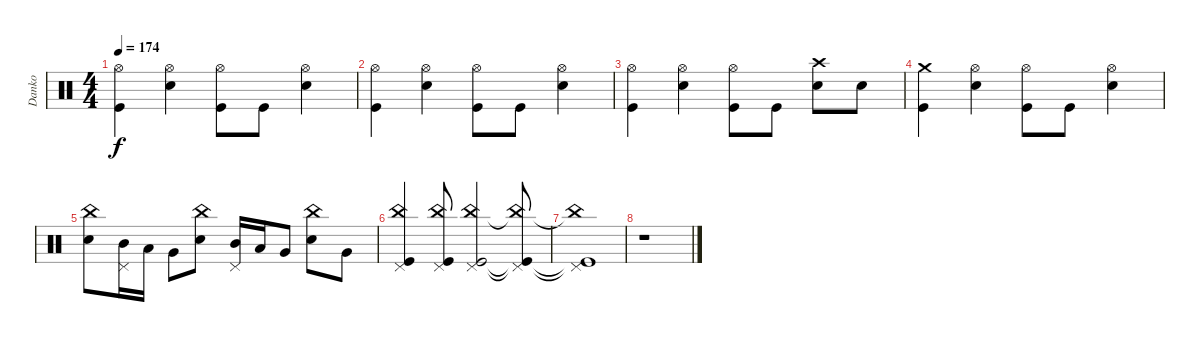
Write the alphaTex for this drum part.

\track ("Danko" "Danko") {instrument percussion}
\staff {score}
\articulation defaults
\ts (4 4)
\tempo 174
\clef neutral
\ks c
("Hi-Hat (open)" "Kick (hit)").4{dy f} ("Hi-Hat (open)" "Snare (hit) 2").4 ("Hi-Hat (open)" "Kick (hit)").8 "Kick (hit)".8 ("Hi-Hat (open)" "Snare (hit) 2").4 |
("Hi-Hat (open)" "Kick (hit)").4 ("Hi-Hat (open)" "Snare (hit) 2").4 ("Hi-Hat (open)" "Kick (hit)").8 "Kick (hit)".8 ("Hi-Hat (open)" "Snare (hit) 2").4 |
("Hi-Hat (open)" "Kick (hit)").4 ("Hi-Hat (open)" "Snare (hit) 2").4 ("Hi-Hat (open)" "Kick (hit)").8 "Kick (hit)".8 ("Crash high (hit)" "Snare (hit) 2").8 "Snare (hit) 2".8 |
("Crash medium (hit)" "Kick (hit)").4 ("Hi-Hat (open)" "Snare (hit) 2").4 ("Hi-Hat (open)" "Kick (hit)").8 "Kick (hit)".8 ("Hi-Hat (open)" "Snare (hit) 2").4 |
("Snare (hit) 2" "China (hit)").8 ("Pedal Hi-Hat (hit)" "Mid Tom (hit)").16 "Low Tom (hit)".16 "Very Low Tom (hit)".8 ("Snare (hit) 2" "China (hit)").8 ("Pedal Hi-Hat (hit)" "Mid Tom (hit)").16 "Low Tom (hit)".16 "Very Low Tom (hit)".8 ("Snare (hit) 2" "China (hit)").8 "Very Low Tom (hit)".8 |
("China (hit)" "Kick (hit)" "Pedal Hi-Hat (hit)").4 ("China (hit)" "Kick (hit)" "Pedal Hi-Hat (hit)").8 ("China (hit)" "Kick (hit)" "Pedal Hi-Hat (hit)").2 ("China (hit)"{t} "Kick (hit)"{t} "Pedal Hi-Hat (hit)"{t}).8 |
("China (hit)"{t} "Kick (hit)"{t} "Pedal Hi-Hat (hit)"{t}).1 |
r.1
